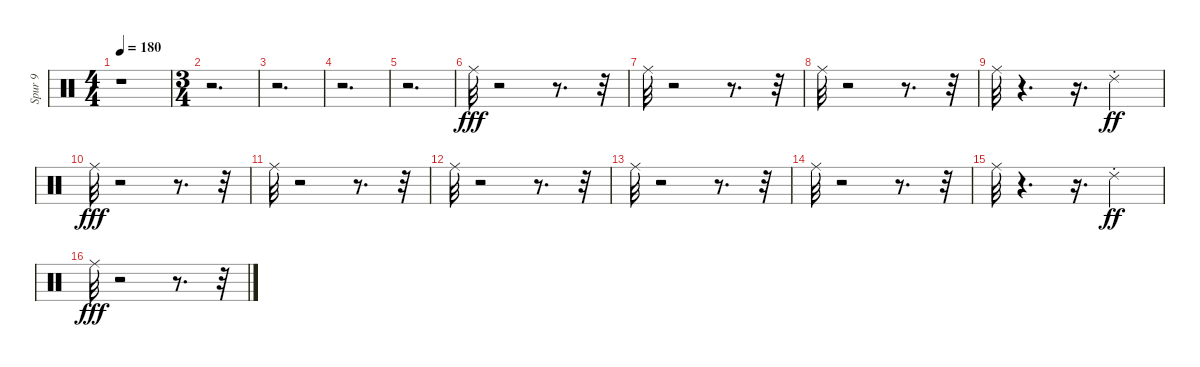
\track ("Spur 9" "Spur 9") {instrument percussion}
\staff {score}
\articulation defaults
\ts (4 4)
\tempo 180
\clef neutral
\ks c
r.1{dy fff} |
\ts (3 4)
r.2{d} |
r.2{d} |
r.2{d} |
r.2{d} |
"Ride (middle)".32 r.2 r.8{d} r.32 |
"Ride (middle)".32 r.2 r.8{d} r.32 |
"Ride (middle)".32 r.2 r.8{d} r.32 |
"Ride (middle)".32 r.4{d} r.16{d} "Ride (choke) 2".4{dy ff} |
"Ride (middle)".32{dy fff} r.2 r.8{d} r.32 |
"Ride (middle)".32 r.2 r.8{d} r.32 |
"Ride (middle)".32 r.2 r.8{d} r.32 |
"Ride (middle)".32 r.2 r.8{d} r.32 |
"Ride (middle)".32 r.2 r.8{d} r.32 |
"Ride (middle)".32 r.4{d} r.16{d} "Ride (choke) 2".4{dy ff} |
"Ride (middle)".32{dy fff} r.2 r.8{d} r.32
